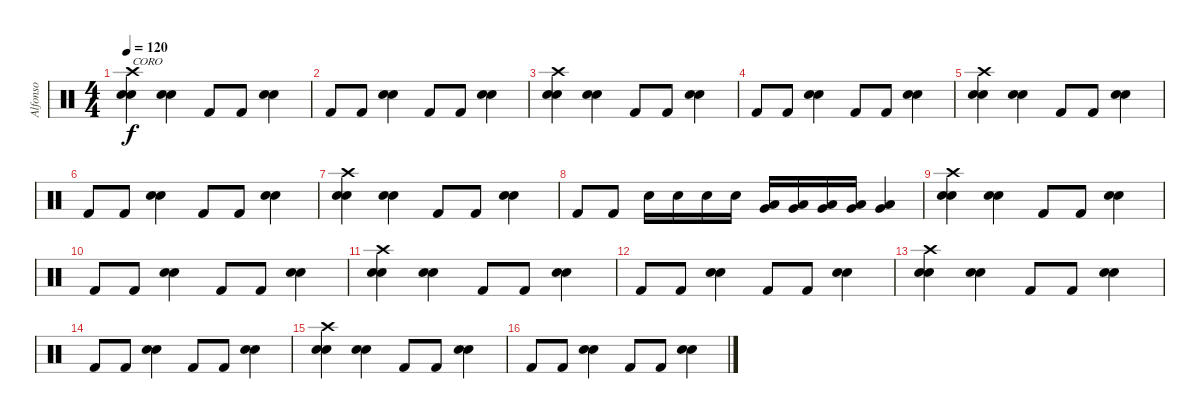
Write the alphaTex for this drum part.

\track ("Alfonso" "Alfonso") {instrument percussion}
\staff {score}
\articulation defaults
\ts (4 4)
\tempo 120
\clef neutral
\ks c
("Snare (hit) 2" "Crash high (hit)" "Electric Snare (hit)").4{txt "CORO" dy f} ("Electric Snare (hit)" "Electric Snare (hit)").4 "Kick (hit) 2".8 "Kick (hit) 2".8 ("Electric Snare (hit)" "Electric Snare (hit)").4 |
"Kick (hit) 2".8 "Kick (hit) 2".8 ("Electric Snare (hit)" "Electric Snare (hit)").4 "Kick (hit) 2".8 "Kick (hit) 2".8 ("Electric Snare (hit)" "Electric Snare (hit)").4 |
("Snare (hit) 2" "Crash high (hit)" "Electric Snare (hit)").4 ("Electric Snare (hit)" "Electric Snare (hit)").4 "Kick (hit) 2".8 "Kick (hit) 2".8 ("Electric Snare (hit)" "Electric Snare (hit)").4 |
"Kick (hit) 2".8 "Kick (hit) 2".8 ("Electric Snare (hit)" "Electric Snare (hit)").4 "Kick (hit) 2".8 "Kick (hit) 2".8 ("Electric Snare (hit)" "Electric Snare (hit)").4 |
("Snare (hit) 2" "Crash high (hit)" "Electric Snare (hit)").4 ("Electric Snare (hit)" "Electric Snare (hit)").4 "Kick (hit) 2".8 "Kick (hit) 2".8 ("Electric Snare (hit)" "Electric Snare (hit)").4 |
"Kick (hit) 2".8 "Kick (hit) 2".8 ("Electric Snare (hit)" "Electric Snare (hit)").4 "Kick (hit) 2".8 "Kick (hit) 2".8 ("Electric Snare (hit)" "Electric Snare (hit)").4 |
("Snare (hit) 2" "Crash high (hit)" "Electric Snare (hit)").4 ("Electric Snare (hit)" "Electric Snare (hit)").4 "Kick (hit) 2".8 "Kick (hit) 2".8 ("Electric Snare (hit)" "Electric Snare (hit)").4 |
"Kick (hit) 2".8 "Kick (hit) 2".8 "Electric Snare (hit)".16 "Electric Snare (hit)".16 "Electric Snare (hit)".16 "Electric Snare (hit)".16 ("Very Low Tom (hit)" "Low Floor Tom (hit)").16 ("Very Low Tom (hit)" "Low Floor Tom (hit)").16 ("Very Low Tom (hit)" "Low Floor Tom (hit)").16 ("Very Low Tom (hit)" "Low Floor Tom (hit)").16 ("Very Low Tom (hit)" "Low Floor Tom (hit)").4 |
("Snare (hit) 2" "Crash high (hit)" "Electric Snare (hit)").4 ("Electric Snare (hit)" "Electric Snare (hit)").4 "Kick (hit) 2".8 "Kick (hit) 2".8 ("Electric Snare (hit)" "Electric Snare (hit)").4 |
"Kick (hit) 2".8 "Kick (hit) 2".8 ("Electric Snare (hit)" "Electric Snare (hit)").4 "Kick (hit) 2".8 "Kick (hit) 2".8 ("Electric Snare (hit)" "Electric Snare (hit)").4 |
("Snare (hit) 2" "Crash high (hit)" "Electric Snare (hit)").4 ("Electric Snare (hit)" "Electric Snare (hit)").4 "Kick (hit) 2".8 "Kick (hit) 2".8 ("Electric Snare (hit)" "Electric Snare (hit)").4 |
"Kick (hit) 2".8 "Kick (hit) 2".8 ("Electric Snare (hit)" "Electric Snare (hit)").4 "Kick (hit) 2".8 "Kick (hit) 2".8 ("Electric Snare (hit)" "Electric Snare (hit)").4 |
("Snare (hit) 2" "Crash high (hit)" "Electric Snare (hit)").4 ("Electric Snare (hit)" "Electric Snare (hit)").4 "Kick (hit) 2".8 "Kick (hit) 2".8 ("Electric Snare (hit)" "Electric Snare (hit)").4 |
"Kick (hit) 2".8 "Kick (hit) 2".8 ("Electric Snare (hit)" "Electric Snare (hit)").4 "Kick (hit) 2".8 "Kick (hit) 2".8 ("Electric Snare (hit)" "Electric Snare (hit)").4 |
("Snare (hit) 2" "Crash high (hit)" "Electric Snare (hit)").4 ("Electric Snare (hit)" "Electric Snare (hit)").4 "Kick (hit) 2".8 "Kick (hit) 2".8 ("Electric Snare (hit)" "Electric Snare (hit)").4 |
"Kick (hit) 2".8 "Kick (hit) 2".8 ("Electric Snare (hit)" "Electric Snare (hit)").4 "Kick (hit) 2".8 "Kick (hit) 2".8 ("Electric Snare (hit)" "Electric Snare (hit)").4
